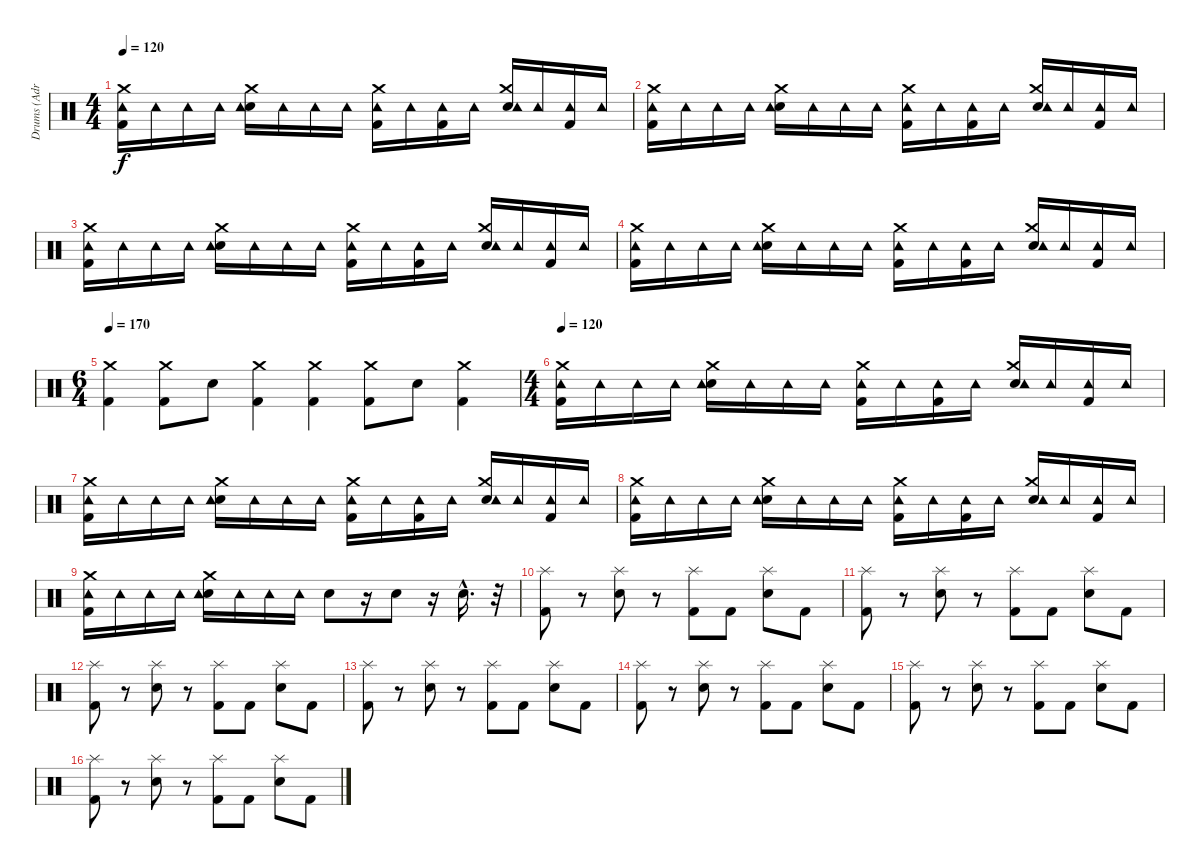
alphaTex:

\track ("Drums (Adrian Young)" "Drums (Adr") {instrument percussion}
\staff {score}
\articulation defaults
\ts (4 4)
\tempo 120
\clef neutral
\ks c
("Kick (hit) 2" "Tambourine (hit)" "Crash medium (hit)").16{dy f} "Tambourine (hit)".16 "Tambourine (hit)".16 "Tambourine (hit)".16 ("Snare (hit) 2" "Tambourine (hit)" "Crash medium (hit)").16 "Tambourine (hit)".16 "Tambourine (hit)".16 "Tambourine (hit)".16 ("Kick (hit) 2" "Tambourine (hit)" "Crash medium (hit)").16 "Tambourine (hit)".16 ("Kick (hit) 2" "Tambourine (hit)").16 "Tambourine (hit)".16 ("Snare (hit) 2" "Tambourine (hit)" "Crash medium (hit)").16 "Tambourine (hit)".16 ("Kick (hit) 2" "Tambourine (hit)").16 "Tambourine (hit)".16 |
("Kick (hit) 2" "Tambourine (hit)" "Crash medium (hit)").16 "Tambourine (hit)".16 "Tambourine (hit)".16 "Tambourine (hit)".16 ("Snare (hit) 2" "Tambourine (hit)" "Crash medium (hit)").16 "Tambourine (hit)".16 "Tambourine (hit)".16 "Tambourine (hit)".16 ("Kick (hit) 2" "Tambourine (hit)" "Crash medium (hit)").16 "Tambourine (hit)".16 ("Kick (hit) 2" "Tambourine (hit)").16 "Tambourine (hit)".16 ("Snare (hit) 2" "Tambourine (hit)" "Crash medium (hit)").16 "Tambourine (hit)".16 ("Kick (hit) 2" "Tambourine (hit)").16 "Tambourine (hit)".16 |
("Kick (hit) 2" "Tambourine (hit)" "Crash medium (hit)").16 "Tambourine (hit)".16 "Tambourine (hit)".16 "Tambourine (hit)".16 ("Snare (hit) 2" "Tambourine (hit)" "Crash medium (hit)").16 "Tambourine (hit)".16 "Tambourine (hit)".16 "Tambourine (hit)".16 ("Kick (hit) 2" "Tambourine (hit)" "Crash medium (hit)").16 "Tambourine (hit)".16 ("Kick (hit) 2" "Tambourine (hit)").16 "Tambourine (hit)".16 ("Snare (hit) 2" "Tambourine (hit)" "Crash medium (hit)").16 "Tambourine (hit)".16 ("Kick (hit) 2" "Tambourine (hit)").16 "Tambourine (hit)".16 |
("Kick (hit) 2" "Tambourine (hit)" "Crash medium (hit)").16 "Tambourine (hit)".16 "Tambourine (hit)".16 "Tambourine (hit)".16 ("Snare (hit) 2" "Tambourine (hit)" "Crash medium (hit)").16 "Tambourine (hit)".16 "Tambourine (hit)".16 "Tambourine (hit)".16 ("Kick (hit) 2" "Tambourine (hit)" "Crash medium (hit)").16 "Tambourine (hit)".16 ("Kick (hit) 2" "Tambourine (hit)").16 "Tambourine (hit)".16 ("Snare (hit) 2" "Tambourine (hit)" "Crash medium (hit)").16 "Tambourine (hit)".16 ("Kick (hit) 2" "Tambourine (hit)").16 "Tambourine (hit)".16 |
\ts (6 4)
\tempo 170
("Kick (hit) 2" "Crash medium (hit)").4 ("Crash medium (hit)" "Kick (hit) 2").8 "Snare (hit) 2".8 ("Kick (hit) 2" "Crash medium (hit)").4 ("Kick (hit) 2" "Crash medium (hit)").4 ("Crash medium (hit)" "Kick (hit) 2").8 "Snare (hit) 2".8 ("Kick (hit) 2" "Crash medium (hit)").4 |
\ts (4 4)
\tempo 120
("Kick (hit) 2" "Tambourine (hit)" "Crash medium (hit)").16 "Tambourine (hit)".16 "Tambourine (hit)".16 "Tambourine (hit)".16 ("Snare (hit) 2" "Tambourine (hit)" "Crash medium (hit)").16 "Tambourine (hit)".16 "Tambourine (hit)".16 "Tambourine (hit)".16 ("Kick (hit) 2" "Tambourine (hit)" "Crash medium (hit)").16 "Tambourine (hit)".16 ("Kick (hit) 2" "Tambourine (hit)").16 "Tambourine (hit)".16 ("Snare (hit) 2" "Tambourine (hit)" "Crash medium (hit)").16 "Tambourine (hit)".16 ("Kick (hit) 2" "Tambourine (hit)").16 "Tambourine (hit)".16 |
("Kick (hit) 2" "Tambourine (hit)" "Crash medium (hit)").16 "Tambourine (hit)".16 "Tambourine (hit)".16 "Tambourine (hit)".16 ("Snare (hit) 2" "Tambourine (hit)" "Crash medium (hit)").16 "Tambourine (hit)".16 "Tambourine (hit)".16 "Tambourine (hit)".16 ("Kick (hit) 2" "Tambourine (hit)" "Crash medium (hit)").16 "Tambourine (hit)".16 ("Kick (hit) 2" "Tambourine (hit)").16 "Tambourine (hit)".16 ("Snare (hit) 2" "Tambourine (hit)" "Crash medium (hit)").16 "Tambourine (hit)".16 ("Kick (hit) 2" "Tambourine (hit)").16 "Tambourine (hit)".16 |
("Kick (hit) 2" "Tambourine (hit)" "Crash medium (hit)").16 "Tambourine (hit)".16 "Tambourine (hit)".16 "Tambourine (hit)".16 ("Snare (hit) 2" "Tambourine (hit)" "Crash medium (hit)").16 "Tambourine (hit)".16 "Tambourine (hit)".16 "Tambourine (hit)".16 ("Kick (hit) 2" "Tambourine (hit)" "Crash medium (hit)").16 "Tambourine (hit)".16 ("Kick (hit) 2" "Tambourine (hit)").16 "Tambourine (hit)".16 ("Snare (hit) 2" "Tambourine (hit)" "Crash medium (hit)").16 "Tambourine (hit)".16 ("Kick (hit) 2" "Tambourine (hit)").16 "Tambourine (hit)".16 |
("Kick (hit) 2" "Tambourine (hit)" "Crash medium (hit)").16 "Tambourine (hit)".16 "Tambourine (hit)".16 "Tambourine (hit)".16 ("Snare (hit) 2" "Tambourine (hit)" "Crash medium (hit)").16 "Tambourine (hit)".16 "Tambourine (hit)".16 "Tambourine (hit)".16 "Snare (hit) 2".8 r.16 "Snare (hit) 2".8 r.16 "Snare (hit) 2"{hac}.16{d} r.32 |
("Kick (hit) 2" "Splash (hit)").8 r.8 ("Snare (hit) 2" "Splash (hit)").8 r.8 ("Kick (hit) 2" "Splash (hit)").8 "Kick (hit) 2".8 ("Snare (hit) 2" "Splash (hit)").8 "Kick (hit) 2".8 |
("Kick (hit) 2" "Splash (hit)").8 r.8 ("Snare (hit) 2" "Splash (hit)").8 r.8 ("Kick (hit) 2" "Splash (hit)").8 "Kick (hit) 2".8 ("Snare (hit) 2" "Splash (hit)").8 "Kick (hit) 2".8 |
("Kick (hit) 2" "Splash (hit)").8 r.8 ("Snare (hit) 2" "Splash (hit)").8 r.8 ("Kick (hit) 2" "Splash (hit)").8 "Kick (hit) 2".8 ("Snare (hit) 2" "Splash (hit)").8 "Kick (hit) 2".8 |
("Kick (hit) 2" "Splash (hit)").8 r.8 ("Snare (hit) 2" "Splash (hit)").8 r.8 ("Kick (hit) 2" "Splash (hit)").8 "Kick (hit) 2".8 ("Snare (hit) 2" "Splash (hit)").8 "Kick (hit) 2".8 |
("Kick (hit) 2" "Splash (hit)").8 r.8 ("Snare (hit) 2" "Splash (hit)").8 r.8 ("Kick (hit) 2" "Splash (hit)").8 "Kick (hit) 2".8 ("Snare (hit) 2" "Splash (hit)").8 "Kick (hit) 2".8 |
("Kick (hit) 2" "Splash (hit)").8 r.8 ("Snare (hit) 2" "Splash (hit)").8 r.8 ("Kick (hit) 2" "Splash (hit)").8 "Kick (hit) 2".8 ("Snare (hit) 2" "Splash (hit)").8 "Kick (hit) 2".8 |
("Kick (hit) 2" "Splash (hit)").8 r.8 ("Snare (hit) 2" "Splash (hit)").8 r.8 ("Kick (hit) 2" "Splash (hit)").8 "Kick (hit) 2".8 ("Snare (hit) 2" "Splash (hit)").8 "Kick (hit) 2".8
